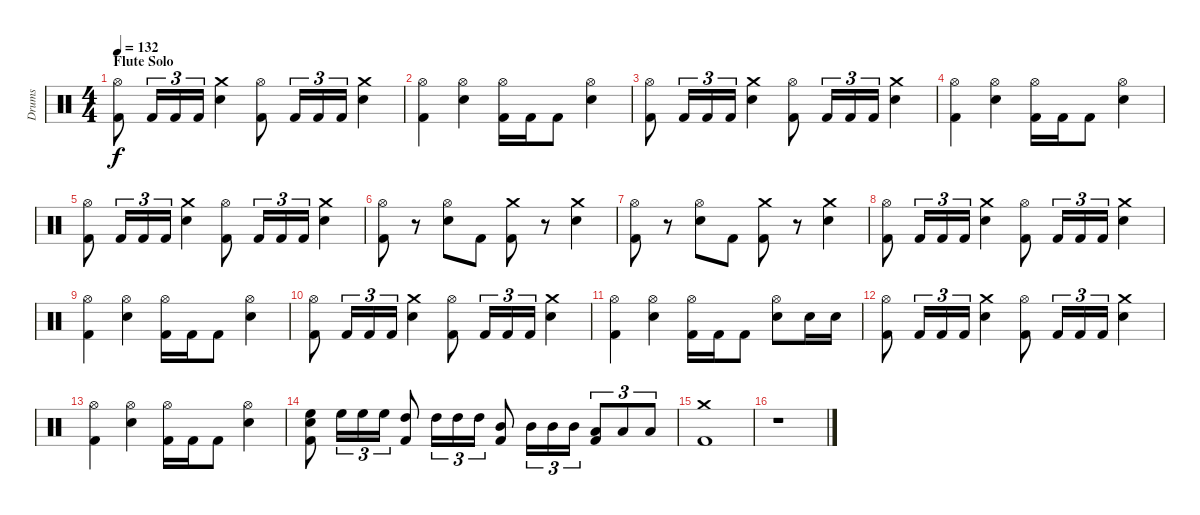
\track ("Drums" "Drums") {instrument percussion}
\staff {score}
\articulation defaults
\ts (4 4)
\section ("" "Flute Solo")
\tempo 132
\clef neutral
\ks c
("Hi-Hat (open)" "Kick (hit) 2").8{dy f} "Kick (hit) 2".16{tu (3 2)} "Kick (hit) 2".16{tu (3 2)} "Kick (hit) 2".16{tu (3 2)} ("Crash medium (hit)" "Electric Snare (hit)").4 ("Hi-Hat (open)" "Kick (hit) 2").8 "Kick (hit) 2".16{tu (3 2)} "Kick (hit) 2".16{tu (3 2)} "Kick (hit) 2".16{tu (3 2)} ("Crash medium (hit)" "Electric Snare (hit)").4 |
("Hi-Hat (open)" "Kick (hit) 2").4 ("Hi-Hat (open)" "Electric Snare (hit)").4 ("Hi-Hat (open)" "Kick (hit) 2").16 "Kick (hit) 2".16 "Kick (hit) 2".8 ("Hi-Hat (open)" "Electric Snare (hit)").4 |
("Hi-Hat (open)" "Kick (hit) 2").8 "Kick (hit) 2".16{tu (3 2)} "Kick (hit) 2".16{tu (3 2)} "Kick (hit) 2".16{tu (3 2)} ("Crash medium (hit)" "Electric Snare (hit)").4 ("Hi-Hat (open)" "Kick (hit) 2").8 "Kick (hit) 2".16{tu (3 2)} "Kick (hit) 2".16{tu (3 2)} "Kick (hit) 2".16{tu (3 2)} ("Crash medium (hit)" "Electric Snare (hit)").4 |
("Hi-Hat (open)" "Kick (hit) 2").4 ("Hi-Hat (open)" "Electric Snare (hit)").4 ("Hi-Hat (open)" "Kick (hit) 2").16 "Kick (hit) 2".16 "Kick (hit) 2".8 ("Hi-Hat (open)" "Electric Snare (hit)").4 |
("Hi-Hat (open)" "Kick (hit) 2").8 "Kick (hit) 2".16{tu (3 2)} "Kick (hit) 2".16{tu (3 2)} "Kick (hit) 2".16{tu (3 2)} ("Crash medium (hit)" "Electric Snare (hit)").4 ("Hi-Hat (open)" "Kick (hit) 2").8 "Kick (hit) 2".16{tu (3 2)} "Kick (hit) 2".16{tu (3 2)} "Kick (hit) 2".16{tu (3 2)} ("Crash medium (hit)" "Electric Snare (hit)").4 |
("Hi-Hat (open)" "Kick (hit) 2").8 r.8 ("Hi-Hat (open)" "Electric Snare (hit)").8 "Kick (hit) 2".8 ("Crash medium (hit)" "Kick (hit) 2").8 r.8 ("Crash medium (hit)" "Electric Snare (hit)").4 |
("Hi-Hat (open)" "Kick (hit) 2").8 r.8 ("Hi-Hat (open)" "Electric Snare (hit)").8 "Kick (hit) 2".8 ("Crash medium (hit)" "Kick (hit) 2").8 r.8 ("Crash medium (hit)" "Electric Snare (hit)").4 |
("Hi-Hat (open)" "Kick (hit) 2").8 "Kick (hit) 2".16{tu (3 2)} "Kick (hit) 2".16{tu (3 2)} "Kick (hit) 2".16{tu (3 2)} ("Crash medium (hit)" "Electric Snare (hit)").4 ("Hi-Hat (open)" "Kick (hit) 2").8 "Kick (hit) 2".16{tu (3 2)} "Kick (hit) 2".16{tu (3 2)} "Kick (hit) 2".16{tu (3 2)} ("Crash medium (hit)" "Electric Snare (hit)").4 |
("Hi-Hat (open)" "Kick (hit) 2").4 ("Hi-Hat (open)" "Electric Snare (hit)").4 ("Hi-Hat (open)" "Kick (hit) 2").16 "Kick (hit) 2".16 "Kick (hit) 2".8 ("Hi-Hat (open)" "Electric Snare (hit)").4 |
("Hi-Hat (open)" "Kick (hit) 2").8 "Kick (hit) 2".16{tu (3 2)} "Kick (hit) 2".16{tu (3 2)} "Kick (hit) 2".16{tu (3 2)} ("Crash medium (hit)" "Electric Snare (hit)").4 ("Hi-Hat (open)" "Kick (hit) 2").8 "Kick (hit) 2".16{tu (3 2)} "Kick (hit) 2".16{tu (3 2)} "Kick (hit) 2".16{tu (3 2)} ("Crash medium (hit)" "Electric Snare (hit)").4 |
("Hi-Hat (open)" "Kick (hit) 2").4 ("Hi-Hat (open)" "Electric Snare (hit)").4 ("Hi-Hat (open)" "Kick (hit) 2").16 "Kick (hit) 2".16 "Kick (hit) 2".8 ("Hi-Hat (open)" "Electric Snare (hit)").8 "Electric Snare (hit)".16 "Electric Snare (hit)".16 |
("Hi-Hat (open)" "Kick (hit) 2").8 "Kick (hit) 2".16{tu (3 2)} "Kick (hit) 2".16{tu (3 2)} "Kick (hit) 2".16{tu (3 2)} ("Crash medium (hit)" "Electric Snare (hit)").4 ("Hi-Hat (open)" "Kick (hit) 2").8 "Kick (hit) 2".16{tu (3 2)} "Kick (hit) 2".16{tu (3 2)} "Kick (hit) 2".16{tu (3 2)} ("Crash medium (hit)" "Electric Snare (hit)").4 |
("Hi-Hat (open)" "Kick (hit) 2").4 ("Hi-Hat (open)" "Electric Snare (hit)").4 ("Hi-Hat (open)" "Kick (hit) 2").16 "Kick (hit) 2".16 "Kick (hit) 2".8 ("Hi-Hat (open)" "Electric Snare (hit)").4 |
("High Floor Tom (hit)" "Electric Snare (hit)" "Kick (hit) 2").8 "High Floor Tom (hit)".16{tu (3 2)} "High Floor Tom (hit)".16{tu (3 2)} "High Floor Tom (hit)".16{tu (3 2)} ("High Tom (hit)" "Kick (hit) 2").8 "High Tom (hit)".16{tu (3 2)} "High Tom (hit)".16{tu (3 2)} "High Tom (hit)".16{tu (3 2)} ("Mid Tom (hit)" "Kick (hit) 2").8 "Mid Tom (hit)".16{tu (3 2)} "Mid Tom (hit)".16{tu (3 2)} "Mid Tom (hit)".16{tu (3 2)} ("Low Tom (hit)" "Kick (hit) 2").8{tu (3 2)} "Low Tom (hit)".8{tu (3 2)} "Low Tom (hit)".8{tu (3 2)} |
("Crash medium (hit)" "Kick (hit) 2").1 |
r.1
